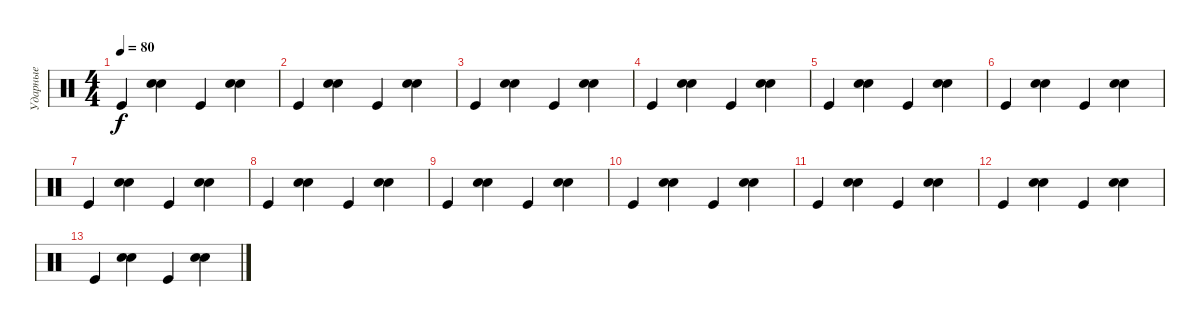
\track ("Ударные" "Ударные") {instrument percussion}
\staff {score}
\articulation defaults
\ts (4 4)
\tempo 80
\clef neutral
\ks aminor "Kick (hit)".4{dy f}
("Snare (hit) 2" "Snare (hit) 2").4{bd 120} "Kick (hit)".4 ("Snare (hit) 2" "Snare (hit) 2").4{bd 120} |
"Kick (hit)".4 ("Snare (hit) 2" "Snare (hit) 2").4{bd 120} "Kick (hit)".4 ("Snare (hit) 2" "Snare (hit) 2").4{bd 120} |
"Kick (hit)".4 ("Snare (hit) 2" "Snare (hit) 2").4{bd 120} "Kick (hit)".4 ("Snare (hit) 2" "Snare (hit) 2").4{bd 120} |
"Kick (hit)".4 ("Snare (hit) 2" "Snare (hit) 2").4{bd 120} "Kick (hit)".4 ("Snare (hit) 2" "Snare (hit) 2").4{bd 120} |
"Kick (hit)".4 ("Snare (hit) 2" "Snare (hit) 2").4{bd 120} "Kick (hit)".4 ("Snare (hit) 2" "Snare (hit) 2").4{bd 120} |
"Kick (hit)".4 ("Snare (hit) 2" "Snare (hit) 2").4{bd 120} "Kick (hit)".4 ("Snare (hit) 2" "Snare (hit) 2").4{bd 120} |
"Kick (hit)".4 ("Snare (hit) 2" "Snare (hit) 2").4{bd 120} "Kick (hit)".4 ("Snare (hit) 2" "Snare (hit) 2").4{bd 120} |
"Kick (hit)".4 ("Snare (hit) 2" "Snare (hit) 2").4{bd 120} "Kick (hit)".4 ("Snare (hit) 2" "Snare (hit) 2").4{bd 120} |
"Kick (hit)".4 ("Snare (hit) 2" "Snare (hit) 2").4{bd 120} "Kick (hit)".4 ("Snare (hit) 2" "Snare (hit) 2").4{bd 120} |
"Kick (hit)".4{volume 0} ("Snare (hit) 2" "Snare (hit) 2").4{bd 120} "Kick (hit)".4 ("Snare (hit) 2" "Snare (hit) 2").4{bd 120} |
"Kick (hit)".4 ("Snare (hit) 2" "Snare (hit) 2").4{bd 120} "Kick (hit)".4 ("Snare (hit) 2" "Snare (hit) 2").4{bd 120} |
"Kick (hit)".4 ("Snare (hit) 2" "Snare (hit) 2").4{bd 120} "Kick (hit)".4 ("Snare (hit) 2" "Snare (hit) 2").4{bd 120} |
"Kick (hit)".4 ("Snare (hit) 2" "Snare (hit) 2").4{bd 120} "Kick (hit)".4 ("Snare (hit) 2" "Snare (hit) 2").4{bd 120}
